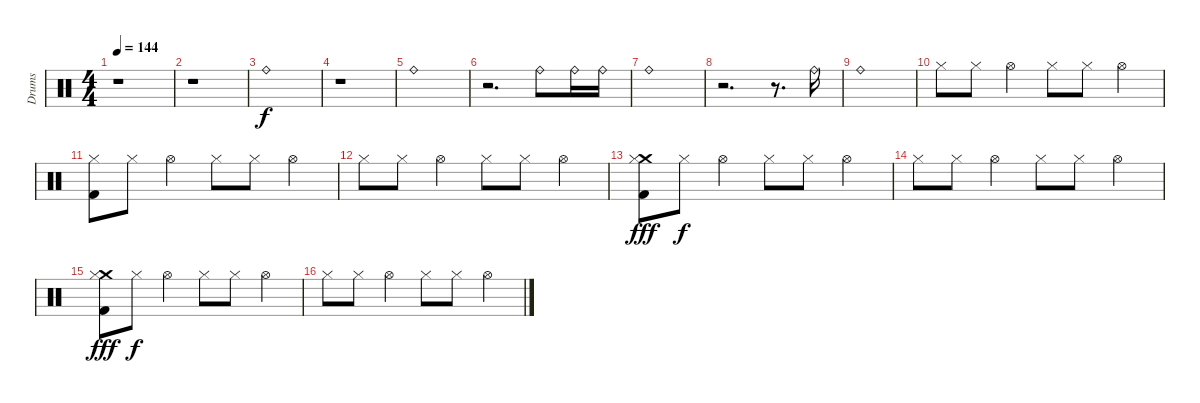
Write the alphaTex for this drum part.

\bracketExtendMode groupsimilarinstruments
\otherSystemsTrackNameOrientation horizontal
\track ("Drumkit" "Drums") {instrument percussion}
\staff {score}
\articulation defaults
\ts (4 4)
\tempo 144
\clef neutral
\ks c
r.1{dy f beam Down} |
r.1{beam Down} |
"Ride (bell)".1{beam Down} |
r.1{beam Down} |
"Ride (bell)".1{beam Down} |
r.2{d beam Down} "Ride (bell)".8{beam Down} "Ride (bell)".16{beam Down} "Ride (bell)".16{beam Down} |
"Ride (bell)".1{beam Down} |
r.2{d beam Down} r.8{d beam Down} "Ride (bell)".16{beam Down} |
"Ride (bell)".1{beam Down} |
"Hi-Hat (closed)".8{beam Down} "Hi-Hat (closed)".8{beam Down} "Hi-Hat (open)".4{beam Down} "Hi-Hat (closed)".8{beam Down} "Hi-Hat (closed)".8{beam Down} "Hi-Hat (open)".4{beam Down} |
("Hi-Hat (closed)" "Kick (hit) 2").8{beam Down} "Hi-Hat (closed)".8{beam Down} "Hi-Hat (open)".4{beam Down} "Hi-Hat (closed)".8{beam Down} "Hi-Hat (closed)".8{beam Down} "Hi-Hat (open)".4{beam Down} |
"Hi-Hat (closed)".8{beam Down} "Hi-Hat (closed)".8{beam Down} "Hi-Hat (open)".4{beam Down} "Hi-Hat (closed)".8{beam Down} "Hi-Hat (closed)".8{beam Down} "Hi-Hat (open)".4{beam Down} |
("Crash medium (hit)" "Hi-Hat (closed)" "Kick (hit) 2").8{dy fff beam Down} "Hi-Hat (closed)".8{dy f beam Down} "Hi-Hat (open)".4{beam Down} "Hi-Hat (closed)".8{beam Down} "Hi-Hat (closed)".8{beam Down} "Hi-Hat (open)".4{beam Down} |
"Hi-Hat (closed)".8{beam Down} "Hi-Hat (closed)".8{beam Down} "Hi-Hat (open)".4{beam Down} "Hi-Hat (closed)".8{beam Down} "Hi-Hat (closed)".8{beam Down} "Hi-Hat (open)".4{beam Down} |
("Crash medium (hit)" "Hi-Hat (closed)" "Kick (hit) 2").8{dy fff beam Down} "Hi-Hat (closed)".8{dy f beam Down} "Hi-Hat (open)".4{beam Down} "Hi-Hat (closed)".8{beam Down} "Hi-Hat (closed)".8{beam Down} "Hi-Hat (open)".4{beam Down} |
"Hi-Hat (closed)".8{beam Down} "Hi-Hat (closed)".8{beam Down} "Hi-Hat (open)".4{beam Down} "Hi-Hat (closed)".8{beam Down} "Hi-Hat (closed)".8{beam Down} "Hi-Hat (open)".4{beam Down}
